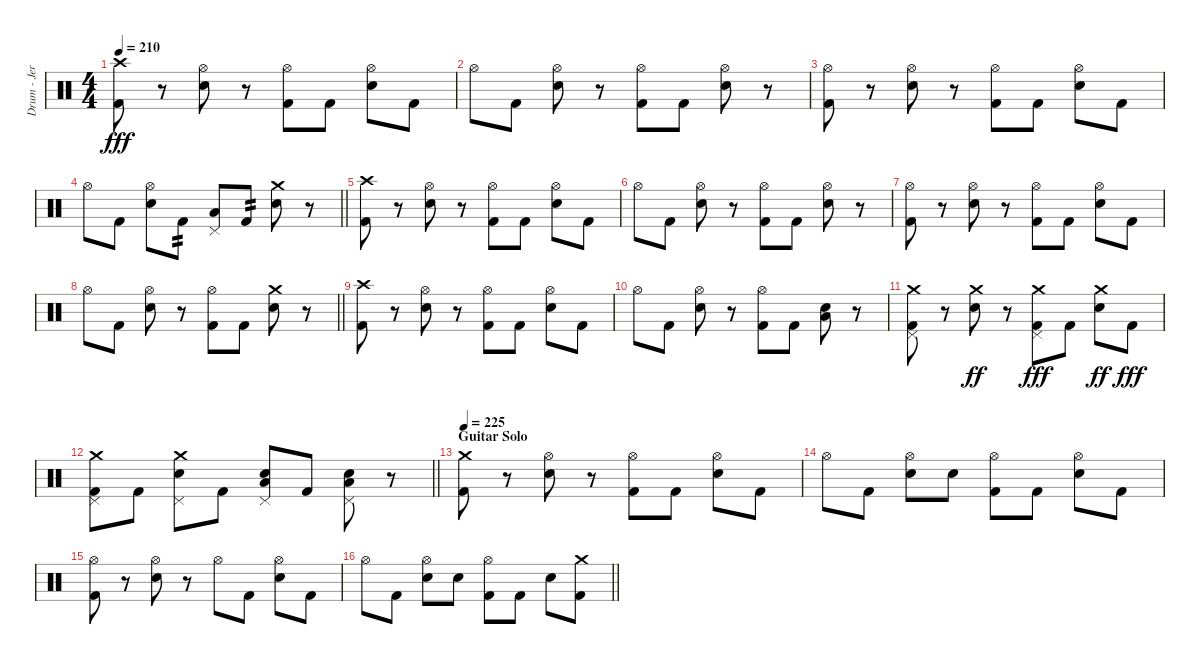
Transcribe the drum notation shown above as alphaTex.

\track ("Drum - Jerinx" "Drum - Jer") {instrument percussion}
\staff {score}
\articulation defaults
\ts (4 4)
\tempo 210
\clef neutral
\ks c
("Kick (hit) 2" "Crash high (hit)").8{dy fff} r.8 ("Hi-Hat (open)" "Snare (hit) 2").8 r.8 ("Hi-Hat (open)" "Kick (hit) 2").8 "Kick (hit) 2".8 ("Hi-Hat (open)" "Snare (hit) 2").8 "Kick (hit) 2".8 |
"Hi-Hat (open)".8 "Kick (hit) 2".8 ("Hi-Hat (open)" "Snare (hit) 2").8 r.8 ("Hi-Hat (open)" "Kick (hit) 2").8 "Kick (hit) 2".8 ("Hi-Hat (open)" "Snare (hit) 2").8 r.8 |
("Hi-Hat (open)" "Kick (hit) 2").8 r.8 ("Hi-Hat (open)" "Snare (hit) 2").8 r.8 ("Hi-Hat (open)" "Kick (hit) 2").8 "Kick (hit) 2".8 ("Hi-Hat (open)" "Snare (hit) 2").8 "Kick (hit) 2".8 |
\barLineRight lightlight "Hi-Hat (open)".8 "Kick (hit) 2".8
("Hi-Hat (open)" "Snare (hit) 2").8 "Kick (hit) 2".8{tp 2} ("Pedal Hi-Hat (hit)" "Low Tom (hit)").8 "Kick (hit) 2".8{tp 2} ("Snare (hit) 2" "Crash medium (hit)").8 r.8 |
("Kick (hit) 2" "Crash high (hit)").8 r.8 ("Hi-Hat (open)" "Snare (hit) 2").8 r.8 ("Hi-Hat (open)" "Kick (hit) 2").8 "Kick (hit) 2".8 ("Hi-Hat (open)" "Snare (hit) 2").8 "Kick (hit) 2".8 |
"Hi-Hat (open)".8 "Kick (hit) 2".8 ("Hi-Hat (open)" "Snare (hit) 2").8 r.8 ("Hi-Hat (open)" "Kick (hit) 2").8 "Kick (hit) 2".8 ("Hi-Hat (open)" "Snare (hit) 2").8 r.8 |
("Hi-Hat (open)" "Kick (hit) 2").8 r.8 ("Hi-Hat (open)" "Snare (hit) 2").8 r.8 ("Hi-Hat (open)" "Kick (hit) 2").8 "Kick (hit) 2".8 ("Hi-Hat (open)" "Snare (hit) 2").8 "Kick (hit) 2".8 |
\barLineRight lightlight "Hi-Hat (open)".8 "Kick (hit) 2".8
("Hi-Hat (open)" "Snare (hit) 2").8 r.8 ("Hi-Hat (open)" "Kick (hit) 2").8 "Kick (hit) 2".8 ("Snare (hit) 2" "Crash medium (hit)").8 r.8 |
("Kick (hit) 2" "Crash high (hit)").8 r.8 ("Hi-Hat (open)" "Snare (hit) 2").8 r.8 ("Hi-Hat (open)" "Kick (hit) 2").8 "Kick (hit) 2".8 ("Hi-Hat (open)" "Snare (hit) 2").8 "Kick (hit) 2".8 |
"Hi-Hat (open)".8 "Kick (hit) 2".8 ("Hi-Hat (open)" "Snare (hit) 2").8 r.8 ("Hi-Hat (open)" "Kick (hit) 2").8 "Kick (hit) 2".8 ("Snare (hit) 2" "Low Floor Tom (hit)").8 r.8 |
("Pedal Hi-Hat (hit)" "Kick (hit) 2" "Crash medium (hit)").8 r.8 ("Snare (hit) 2" "Crash medium (hit)").8{dy ff} r.8 ("Pedal Hi-Hat (hit)" "Kick (hit) 2" "Crash medium (hit)").8{dy fff} "Kick (hit) 2".8 ("Snare (hit) 2" "Crash medium (hit)").8{dy ff} "Kick (hit) 2".8{dy fff} |
\barLineRight lightlight
("Pedal Hi-Hat (hit)" "Kick (hit) 2" "Crash medium (hit)").8 "Kick (hit) 2".8 ("Pedal Hi-Hat (hit)" "Snare (hit) 2" "Crash medium (hit)").8 "Kick (hit) 2".8 ("Pedal Hi-Hat (hit)" "Snare (hit) 2" "Low Floor Tom (hit)").8 "Kick (hit) 2".8 ("Pedal Hi-Hat (hit)" "Snare (hit) 2" "Low Floor Tom (hit)").8 r.8 |
\section ("" "Guitar Solo")
\tempo 225
("Kick (hit) 2" "Crash medium (hit)").8 r.8 ("Hi-Hat (open)" "Snare (hit) 2").8 r.8 ("Hi-Hat (open)" "Kick (hit) 2").8 "Kick (hit) 2".8 ("Hi-Hat (open)" "Snare (hit) 2").8 "Kick (hit) 2".8 |
"Hi-Hat (open)".8 "Kick (hit) 2".8 ("Hi-Hat (open)" "Snare (hit) 2").8 "Snare (hit) 2".8 ("Hi-Hat (open)" "Kick (hit) 2").8 "Kick (hit) 2".8 ("Hi-Hat (open)" "Snare (hit) 2").8 "Kick (hit) 2".8 |
("Hi-Hat (open)" "Kick (hit) 2").8 r.8 ("Hi-Hat (open)" "Snare (hit) 2").8 r.8 "Hi-Hat (open)".8 "Kick (hit) 2".8 ("Hi-Hat (open)" "Snare (hit) 2").8 "Kick (hit) 2".8 |
\barLineRight lightlight "Hi-Hat (open)".8 "Kick (hit) 2".8
("Hi-Hat (open)" "Snare (hit) 2").8 "Snare (hit) 2".8 ("Hi-Hat (open)" "Kick (hit) 2").8 "Kick (hit) 2".8 "Snare (hit) 2".8 ("Kick (hit) 2" "Crash medium (hit)").8
